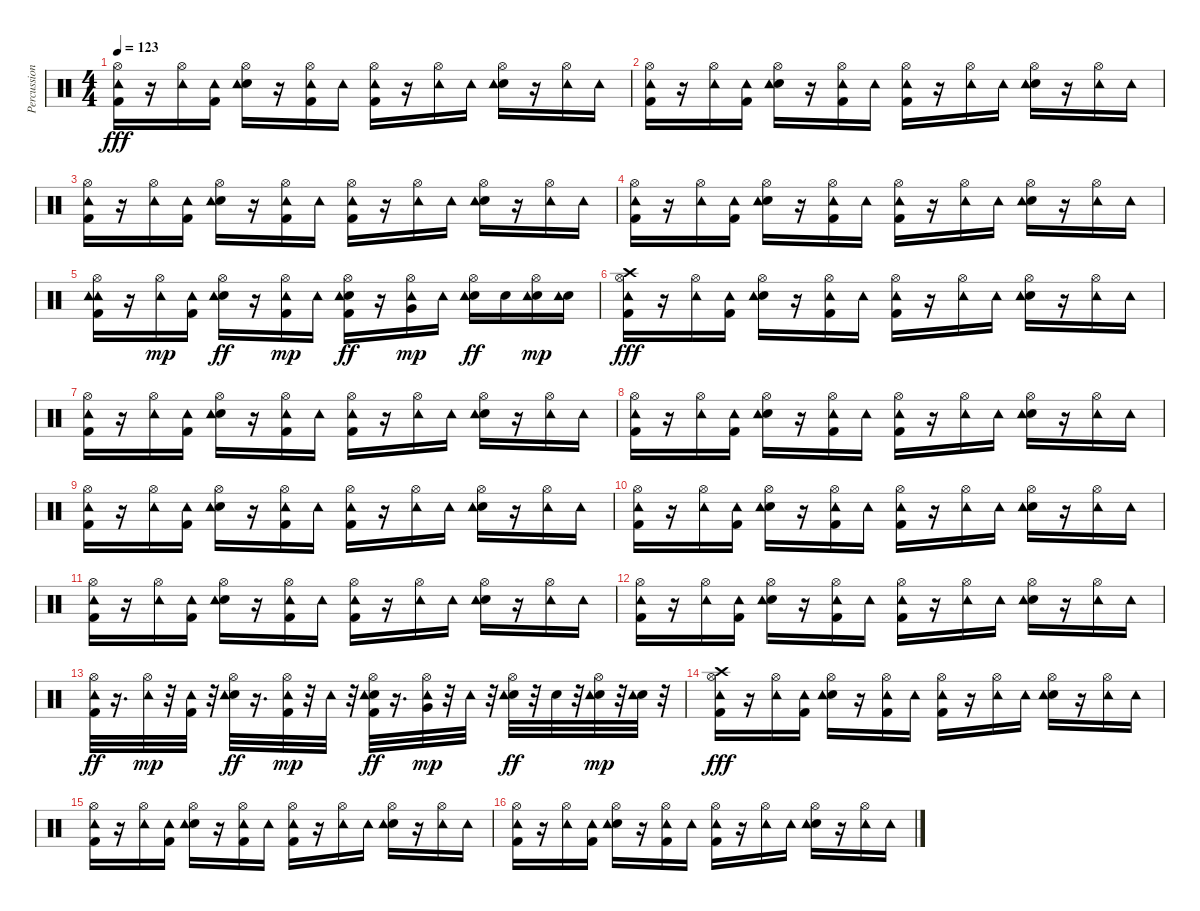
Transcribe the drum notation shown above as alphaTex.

\track ("Percussion: Liberty D'Vitto" "Percussion") {instrument percussion}
\staff {score}
\articulation defaults
\ts (4 4)
\tempo 123
\clef neutral
\ks c
("Hi-Hat (open)" "Tambourine (hit)" "Kick (hit) 2").16{dy fff} r.16 ("Hi-Hat (open)" "Tambourine (hit)").16 ("Tambourine (hit)" "Kick (hit) 2").16 ("Hi-Hat (open)" "Snare (hit) 2" "Tambourine (hit)").16 r.16 ("Hi-Hat (open)" "Tambourine (hit)" "Kick (hit) 2").16 "Tambourine (hit)".16 ("Hi-Hat (open)" "Tambourine (hit)" "Kick (hit) 2").16 r.16 ("Hi-Hat (open)" "Tambourine (hit)").16 "Tambourine (hit)".16 ("Hi-Hat (open)" "Snare (hit) 2" "Tambourine (hit)").16 r.16 ("Hi-Hat (open)" "Tambourine (hit)").16 "Tambourine (hit)".16 |
("Hi-Hat (open)" "Tambourine (hit)" "Kick (hit) 2").16 r.16 ("Hi-Hat (open)" "Tambourine (hit)").16 ("Tambourine (hit)" "Kick (hit) 2").16 ("Hi-Hat (open)" "Snare (hit) 2" "Tambourine (hit)").16 r.16 ("Hi-Hat (open)" "Tambourine (hit)" "Kick (hit) 2").16 "Tambourine (hit)".16 ("Hi-Hat (open)" "Tambourine (hit)" "Kick (hit) 2").16 r.16 ("Hi-Hat (open)" "Tambourine (hit)").16 "Tambourine (hit)".16 ("Hi-Hat (open)" "Snare (hit) 2" "Tambourine (hit)").16 r.16 ("Hi-Hat (open)" "Tambourine (hit)").16 "Tambourine (hit)".16 |
("Hi-Hat (open)" "Tambourine (hit)" "Kick (hit) 2").16 r.16 ("Hi-Hat (open)" "Tambourine (hit)").16 ("Tambourine (hit)" "Kick (hit) 2").16 ("Hi-Hat (open)" "Snare (hit) 2" "Tambourine (hit)").16 r.16 ("Hi-Hat (open)" "Tambourine (hit)" "Kick (hit) 2").16 "Tambourine (hit)".16 ("Hi-Hat (open)" "Tambourine (hit)" "Kick (hit) 2").16 r.16 ("Hi-Hat (open)" "Tambourine (hit)").16 "Tambourine (hit)".16 ("Hi-Hat (open)" "Snare (hit) 2" "Tambourine (hit)").16 r.16 ("Hi-Hat (open)" "Tambourine (hit)").16 "Tambourine (hit)".16 |
("Hi-Hat (open)" "Tambourine (hit)" "Kick (hit) 2").16 r.16 ("Hi-Hat (open)" "Tambourine (hit)").16 ("Tambourine (hit)" "Kick (hit) 2").16 ("Hi-Hat (open)" "Snare (hit) 2" "Tambourine (hit)").16 r.16 ("Hi-Hat (open)" "Tambourine (hit)" "Kick (hit) 2").16 "Tambourine (hit)".16 ("Hi-Hat (open)" "Tambourine (hit)" "Kick (hit) 2").16 r.16 ("Hi-Hat (open)" "Tambourine (hit)").16 "Tambourine (hit)".16 ("Hi-Hat (open)" "Snare (hit) 2" "Tambourine (hit)").16 r.16 ("Hi-Hat (open)" "Tambourine (hit)").16 "Tambourine (hit)".16 |
("Hi-Hat (open)" "Tambourine (hit)" "Tambourine (hit)" "Kick (hit) 2").16 r.16 ("Hi-Hat (open)" "Tambourine (hit)").16{dy mp} ("Kick (hit) 2" "Tambourine (hit)").16 ("Snare (hit) 2" "Hi-Hat (open)" "Tambourine (hit)").16{dy ff} r.16 ("Kick (hit) 2" "Hi-Hat (open)" "Tambourine (hit)").16{dy mp} "Tambourine (hit)".16 ("Kick (hit) 2" "Snare (hit) 2" "Hi-Hat (open)" "Tambourine (hit)").16{dy ff} r.16 ("Hi-Hat (open)" "Very Low Tom (hit)" "Tambourine (hit)").16{dy mp} "Tambourine (hit)".16 ("Snare (hit) 2" "Hi-Hat (open)" "Tambourine (hit)").16{dy ff} "Snare (hit) 2".16 ("Snare (hit) 2" "Hi-Hat (open)" "Tambourine (hit)").16{dy mp} ("Snare (hit) 2" "Tambourine (hit)").16 |
("Crash high (hit)" "Hi-Hat (open)" "Tambourine (hit)" "Kick (hit) 2").16{dy fff} r.16 ("Hi-Hat (open)" "Tambourine (hit)").16 ("Tambourine (hit)" "Kick (hit) 2").16 ("Hi-Hat (open)" "Snare (hit) 2" "Tambourine (hit)").16 r.16 ("Hi-Hat (open)" "Tambourine (hit)" "Kick (hit) 2").16 "Tambourine (hit)".16 ("Hi-Hat (open)" "Tambourine (hit)" "Kick (hit) 2").16 r.16 ("Hi-Hat (open)" "Tambourine (hit)").16 "Tambourine (hit)".16 ("Hi-Hat (open)" "Snare (hit) 2" "Tambourine (hit)").16 r.16 ("Hi-Hat (open)" "Tambourine (hit)").16 "Tambourine (hit)".16 |
("Hi-Hat (open)" "Tambourine (hit)" "Kick (hit) 2").16 r.16 ("Hi-Hat (open)" "Tambourine (hit)").16 ("Tambourine (hit)" "Kick (hit) 2").16 ("Hi-Hat (open)" "Snare (hit) 2" "Tambourine (hit)").16 r.16 ("Hi-Hat (open)" "Tambourine (hit)" "Kick (hit) 2").16 "Tambourine (hit)".16 ("Hi-Hat (open)" "Tambourine (hit)" "Kick (hit) 2").16 r.16 ("Hi-Hat (open)" "Tambourine (hit)").16 "Tambourine (hit)".16 ("Hi-Hat (open)" "Snare (hit) 2" "Tambourine (hit)").16 r.16 ("Hi-Hat (open)" "Tambourine (hit)").16 "Tambourine (hit)".16 |
("Hi-Hat (open)" "Tambourine (hit)" "Kick (hit) 2").16 r.16 ("Hi-Hat (open)" "Tambourine (hit)").16 ("Tambourine (hit)" "Kick (hit) 2").16 ("Hi-Hat (open)" "Snare (hit) 2" "Tambourine (hit)").16 r.16 ("Hi-Hat (open)" "Tambourine (hit)" "Kick (hit) 2").16 "Tambourine (hit)".16 ("Hi-Hat (open)" "Tambourine (hit)" "Kick (hit) 2").16 r.16 ("Hi-Hat (open)" "Tambourine (hit)").16 "Tambourine (hit)".16 ("Hi-Hat (open)" "Snare (hit) 2" "Tambourine (hit)").16 r.16 ("Hi-Hat (open)" "Tambourine (hit)").16 "Tambourine (hit)".16 |
("Hi-Hat (open)" "Tambourine (hit)" "Kick (hit) 2").16 r.16 ("Hi-Hat (open)" "Tambourine (hit)").16 ("Tambourine (hit)" "Kick (hit) 2").16 ("Hi-Hat (open)" "Snare (hit) 2" "Tambourine (hit)").16 r.16 ("Hi-Hat (open)" "Tambourine (hit)" "Kick (hit) 2").16 "Tambourine (hit)".16 ("Hi-Hat (open)" "Tambourine (hit)" "Kick (hit) 2").16 r.16 ("Hi-Hat (open)" "Tambourine (hit)").16 "Tambourine (hit)".16 ("Hi-Hat (open)" "Snare (hit) 2" "Tambourine (hit)").16 r.16 ("Hi-Hat (open)" "Tambourine (hit)").16 "Tambourine (hit)".16 |
("Hi-Hat (open)" "Tambourine (hit)" "Kick (hit) 2").16 r.16 ("Hi-Hat (open)" "Tambourine (hit)").16 ("Tambourine (hit)" "Kick (hit) 2").16 ("Hi-Hat (open)" "Snare (hit) 2" "Tambourine (hit)").16 r.16 ("Hi-Hat (open)" "Tambourine (hit)" "Kick (hit) 2").16 "Tambourine (hit)".16 ("Hi-Hat (open)" "Tambourine (hit)" "Kick (hit) 2").16 r.16 ("Hi-Hat (open)" "Tambourine (hit)").16 "Tambourine (hit)".16 ("Hi-Hat (open)" "Snare (hit) 2" "Tambourine (hit)").16 r.16 ("Hi-Hat (open)" "Tambourine (hit)").16 "Tambourine (hit)".16 |
("Hi-Hat (open)" "Tambourine (hit)" "Kick (hit) 2").16 r.16 ("Hi-Hat (open)" "Tambourine (hit)").16 ("Tambourine (hit)" "Kick (hit) 2").16 ("Hi-Hat (open)" "Snare (hit) 2" "Tambourine (hit)").16 r.16 ("Hi-Hat (open)" "Tambourine (hit)" "Kick (hit) 2").16 "Tambourine (hit)".16 ("Hi-Hat (open)" "Tambourine (hit)" "Kick (hit) 2").16 r.16 ("Hi-Hat (open)" "Tambourine (hit)").16 "Tambourine (hit)".16 ("Hi-Hat (open)" "Snare (hit) 2" "Tambourine (hit)").16 r.16 ("Hi-Hat (open)" "Tambourine (hit)").16 "Tambourine (hit)".16 |
("Hi-Hat (open)" "Tambourine (hit)" "Kick (hit) 2").16 r.16 ("Hi-Hat (open)" "Tambourine (hit)").16 ("Tambourine (hit)" "Kick (hit) 2").16 ("Hi-Hat (open)" "Snare (hit) 2" "Tambourine (hit)").16 r.16 ("Hi-Hat (open)" "Tambourine (hit)" "Kick (hit) 2").16 "Tambourine (hit)".16 ("Hi-Hat (open)" "Tambourine (hit)" "Kick (hit) 2").16 r.16 ("Hi-Hat (open)" "Tambourine (hit)").16 "Tambourine (hit)".16 ("Hi-Hat (open)" "Snare (hit) 2" "Tambourine (hit)").16 r.16 ("Hi-Hat (open)" "Tambourine (hit)").16 "Tambourine (hit)".16 |
("Kick (hit) 2" "Hi-Hat (open)" "Tambourine (hit)").32{dy ff} r.16{d} ("Hi-Hat (open)" "Tambourine (hit)").32{dy mp} r.32 ("Kick (hit) 2" "Tambourine (hit)").32 r.32 ("Snare (hit) 2" "Hi-Hat (open)" "Tambourine (hit)").32{dy ff} r.16{d} ("Kick (hit) 2" "Hi-Hat (open)" "Tambourine (hit)").32{dy mp} r.32 "Tambourine (hit)".32 r.32 ("Kick (hit) 2" "Snare (hit) 2" "Hi-Hat (open)" "Tambourine (hit)").32{dy ff} r.16{d} ("Hi-Hat (open)" "Very Low Tom (hit)" "Tambourine (hit)").32{dy mp} r.32 "Tambourine (hit)".32 r.32 ("Snare (hit) 2" "Hi-Hat (open)" "Tambourine (hit)").32{dy ff} r.32 "Snare (hit) 2".32 r.32 ("Snare (hit) 2" "Hi-Hat (open)" "Tambourine (hit)").32{dy mp} r.32 ("Snare (hit) 2" "Tambourine (hit)").32 r.32 |
("Crash high (hit)" "Hi-Hat (open)" "Tambourine (hit)" "Kick (hit) 2").16{dy fff} r.16 ("Hi-Hat (open)" "Tambourine (hit)").16 ("Tambourine (hit)" "Kick (hit) 2").16 ("Hi-Hat (open)" "Snare (hit) 2" "Tambourine (hit)").16 r.16 ("Hi-Hat (open)" "Tambourine (hit)" "Kick (hit) 2").16 "Tambourine (hit)".16 ("Hi-Hat (open)" "Tambourine (hit)" "Kick (hit) 2").16 r.16 ("Hi-Hat (open)" "Tambourine (hit)").16 "Tambourine (hit)".16 ("Hi-Hat (open)" "Snare (hit) 2" "Tambourine (hit)").16 r.16 ("Hi-Hat (open)" "Tambourine (hit)").16 "Tambourine (hit)".16 |
("Hi-Hat (open)" "Tambourine (hit)" "Kick (hit) 2").16 r.16 ("Hi-Hat (open)" "Tambourine (hit)").16 ("Tambourine (hit)" "Kick (hit) 2").16 ("Hi-Hat (open)" "Snare (hit) 2" "Tambourine (hit)").16 r.16 ("Hi-Hat (open)" "Tambourine (hit)" "Kick (hit) 2").16 "Tambourine (hit)".16 ("Hi-Hat (open)" "Tambourine (hit)" "Kick (hit) 2").16 r.16 ("Hi-Hat (open)" "Tambourine (hit)").16 "Tambourine (hit)".16 ("Hi-Hat (open)" "Snare (hit) 2" "Tambourine (hit)").16 r.16 ("Hi-Hat (open)" "Tambourine (hit)").16 "Tambourine (hit)".16 |
("Hi-Hat (open)" "Tambourine (hit)" "Kick (hit) 2").16 r.16 ("Hi-Hat (open)" "Tambourine (hit)").16 ("Tambourine (hit)" "Kick (hit) 2").16 ("Hi-Hat (open)" "Snare (hit) 2" "Tambourine (hit)").16 r.16 ("Hi-Hat (open)" "Tambourine (hit)" "Kick (hit) 2").16 "Tambourine (hit)".16 ("Hi-Hat (open)" "Tambourine (hit)" "Kick (hit) 2").16 r.16 ("Hi-Hat (open)" "Tambourine (hit)").16 "Tambourine (hit)".16 ("Hi-Hat (open)" "Snare (hit) 2" "Tambourine (hit)").16 r.16 ("Hi-Hat (open)" "Tambourine (hit)").16 "Tambourine (hit)".16
